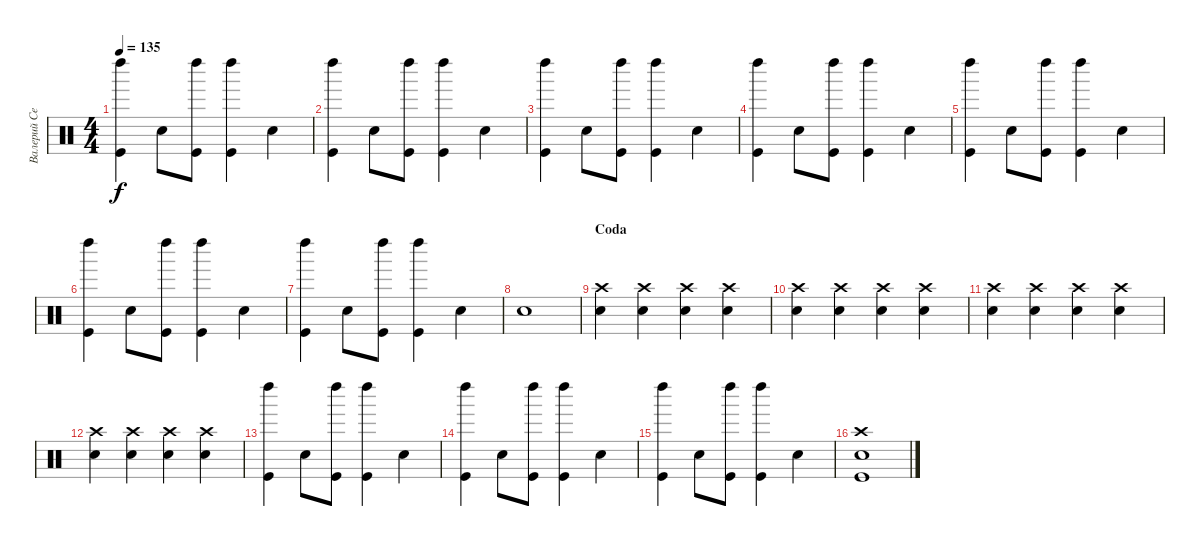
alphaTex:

\track ("Валерий Северин" "Валерий Се") {instrument percussion}
\staff {score}
\articulation defaults
\ts (4 4)
\tempo 135
\clef neutral
\ks c
("Kick (hit)" "Left Maraca (hit)").4{dy f} "Snare (hit) 2".8 ("Kick (hit)" "Left Maraca (hit)").8 ("Kick (hit)" "Left Maraca (hit)").4 "Snare (hit) 2".4 |
("Kick (hit)" "Left Maraca (hit)").4 "Snare (hit) 2".8 ("Kick (hit)" "Left Maraca (hit)").8 ("Kick (hit)" "Left Maraca (hit)").4 "Snare (hit) 2".4 |
("Kick (hit)" "Left Maraca (hit)").4 "Snare (hit) 2".8 ("Kick (hit)" "Left Maraca (hit)").8 ("Kick (hit)" "Left Maraca (hit)").4 "Snare (hit) 2".4 |
("Kick (hit)" "Left Maraca (hit)").4 "Snare (hit) 2".8 ("Kick (hit)" "Left Maraca (hit)").8 ("Kick (hit)" "Left Maraca (hit)").4 "Snare (hit) 2".4 |
("Kick (hit)" "Left Maraca (hit)").4 "Snare (hit) 2".8 ("Kick (hit)" "Left Maraca (hit)").8 ("Kick (hit)" "Left Maraca (hit)").4 "Snare (hit) 2".4 |
("Kick (hit)" "Left Maraca (hit)").4 "Snare (hit) 2".8 ("Kick (hit)" "Left Maraca (hit)").8 ("Kick (hit)" "Left Maraca (hit)").4 "Snare (hit) 2".4 |
("Kick (hit)" "Left Maraca (hit)").4 "Snare (hit) 2".8 ("Kick (hit)" "Left Maraca (hit)").8 ("Kick (hit)" "Left Maraca (hit)").4 "Snare (hit) 2".4 |
"Snare (hit) 2".1 |
\section ("" "Coda")
("Snare (hit) 2" "Crash high (hit)").4 ("Snare (hit) 2" "Crash high (hit)").4 ("Snare (hit) 2" "Crash high (hit)").4 ("Snare (hit) 2" "Crash high (hit)").4 |
("Snare (hit) 2" "Crash high (hit)").4 ("Snare (hit) 2" "Crash high (hit)").4 ("Snare (hit) 2" "Crash high (hit)").4 ("Snare (hit) 2" "Crash high (hit)").4 |
("Snare (hit) 2" "Crash high (hit)").4 ("Snare (hit) 2" "Crash high (hit)").4 ("Snare (hit) 2" "Crash high (hit)").4 ("Snare (hit) 2" "Crash high (hit)").4 |
("Snare (hit) 2" "Crash high (hit)").4 ("Snare (hit) 2" "Crash high (hit)").4 ("Snare (hit) 2" "Crash high (hit)").4 ("Snare (hit) 2" "Crash high (hit)").4 |
("Kick (hit)" "Left Maraca (hit)").4 "Snare (hit) 2".8 ("Kick (hit)" "Left Maraca (hit)").8 ("Kick (hit)" "Left Maraca (hit)").4 "Snare (hit) 2".4 |
("Kick (hit)" "Left Maraca (hit)").4 "Snare (hit) 2".8 ("Kick (hit)" "Left Maraca (hit)").8 ("Kick (hit)" "Left Maraca (hit)").4 "Snare (hit) 2".4 |
("Kick (hit)" "Left Maraca (hit)").4 "Snare (hit) 2".8 ("Kick (hit)" "Left Maraca (hit)").8 ("Kick (hit)" "Left Maraca (hit)").4 "Snare (hit) 2".4 |
("Kick (hit)" "Snare (hit) 2" "Crash high (hit)").1
